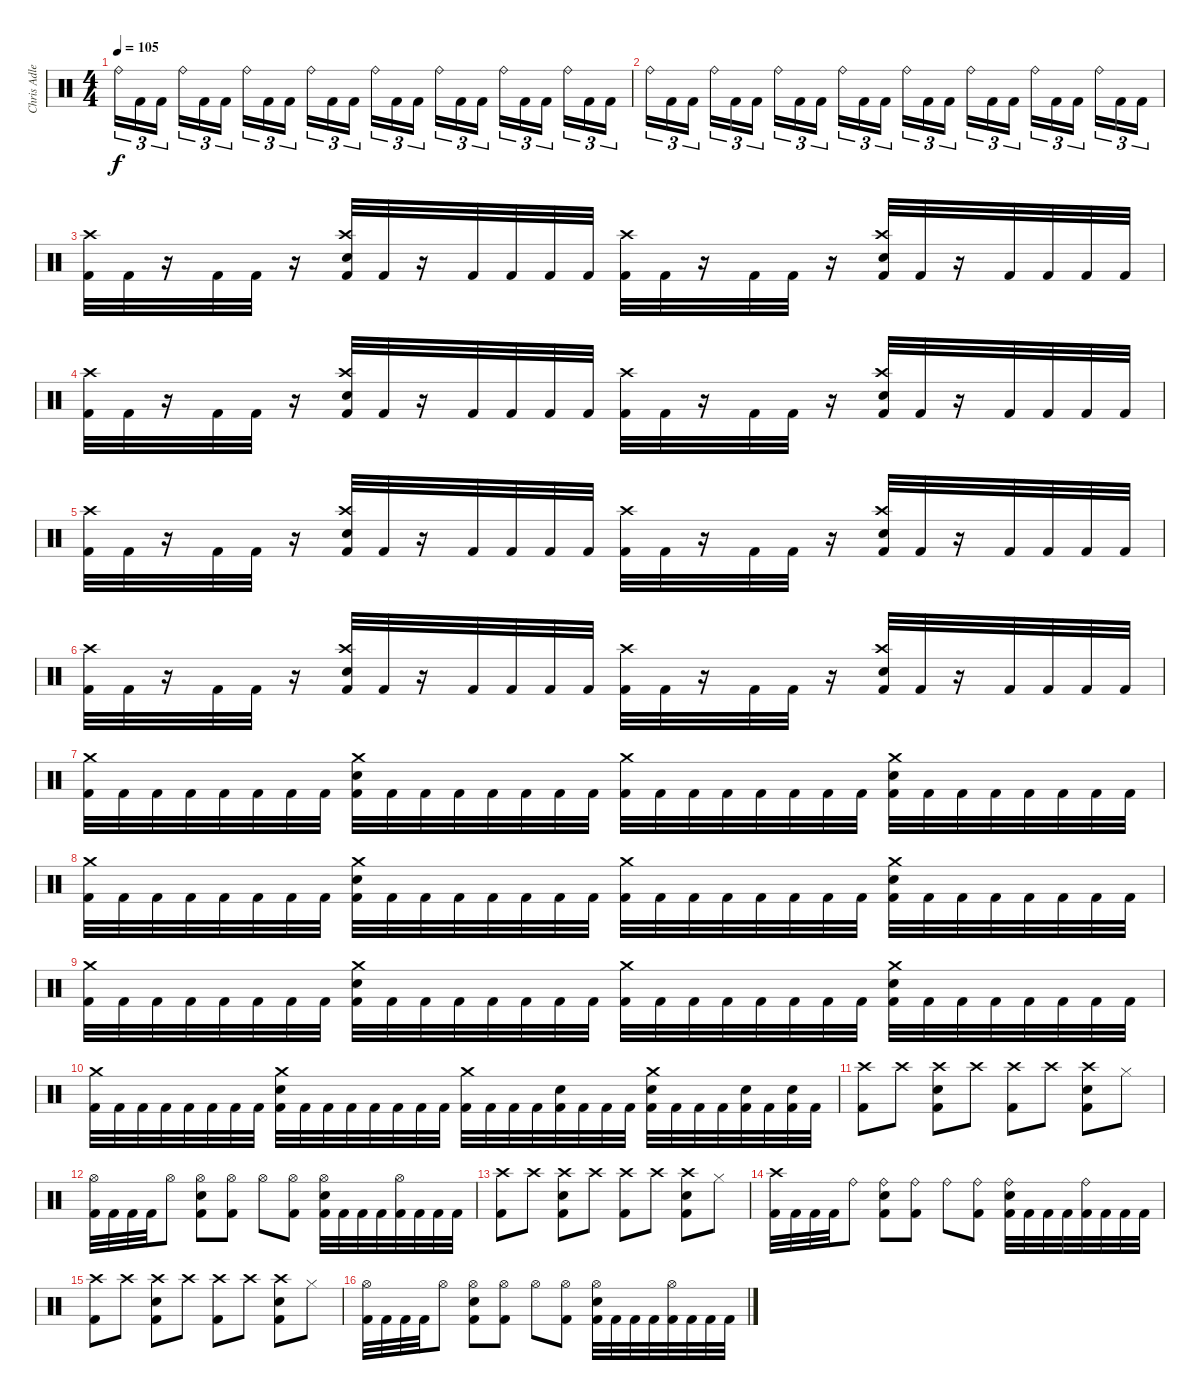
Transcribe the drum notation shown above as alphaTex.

\track ("Chris Adler" "Chris Adle") {instrument percussion}
\staff {score}
\articulation defaults
\ts (4 4)
\tempo 105
\clef neutral
\ks c "Ride (bell)".16{tu (3 2) dy f} "Kick (hit) 2".16{tu (3 2)} "Kick (hit) 2".16{tu (3 2) beam splitsecondary} "Ride (bell)".16{tu (3 2)} "Kick (hit) 2".16{tu (3 2)} "Kick (hit) 2".16{tu (3 2)} "Ride (bell)".16{tu (3 2)} "Kick (hit) 2".16{tu (3 2)} "Kick (hit) 2".16{tu (3 2) beam splitsecondary} "Ride (bell)".16{tu (3 2)} "Kick (hit) 2".16{tu (3 2)} "Kick (hit) 2".16{tu (3 2)} "Ride (bell)".16{tu (3 2)} "Kick (hit) 2".16{tu (3 2)} "Kick (hit) 2".16{tu (3 2) beam splitsecondary} "Ride (bell)".16{tu (3 2)} "Kick (hit) 2".16{tu (3 2)} "Kick (hit) 2".16{tu (3 2)} "Ride (bell)".16{tu (3 2)} "Kick (hit) 2".16{tu (3 2)} "Kick (hit) 2".16{tu (3 2) beam splitsecondary} "Ride (bell)".16{tu (3 2)} "Kick (hit) 2".16{tu (3 2)} "Kick (hit) 2".16{tu (3 2)}
|
"Ride (bell)".16{tu (3 2)} "Kick (hit) 2".16{tu (3 2)} "Kick (hit) 2".16{tu (3 2) beam splitsecondary} "Ride (bell)".16{tu (3 2)} "Kick (hit) 2".16{tu (3 2)} "Kick (hit) 2".16{tu (3 2)} "Ride (bell)".16{tu (3 2)} "Kick (hit) 2".16{tu (3 2)} "Kick (hit) 2".16{tu (3 2) beam splitsecondary} "Ride (bell)".16{tu (3 2)} "Kick (hit) 2".16{tu (3 2)} "Kick (hit) 2".16{tu (3 2)} "Ride (bell)".16{tu (3 2)} "Kick (hit) 2".16{tu (3 2)} "Kick (hit) 2".16{tu (3 2) beam splitsecondary} "Ride (bell)".16{tu (3 2)} "Kick (hit) 2".16{tu (3 2)} "Kick (hit) 2".16{tu (3 2)} "Ride (bell)".16{tu (3 2)} "Kick (hit) 2".16{tu (3 2)} "Kick (hit) 2".16{tu (3 2) beam splitsecondary} "Ride (bell)".16{tu (3 2)} "Kick (hit) 2".16{tu (3 2)} "Kick (hit) 2".16{tu (3 2)} |
("Crash high (hit)" "Kick (hit) 2").32 "Kick (hit) 2".32 r.16 "Kick (hit) 2".32 "Kick (hit) 2".32 r.16 ("Crash high (hit)" "Electric Snare (hit)" "Kick (hit) 2").32 "Kick (hit) 2".32 r.16 "Kick (hit) 2".32 "Kick (hit) 2".32 "Kick (hit) 2".32 "Kick (hit) 2".32 ("Crash high (hit)" "Kick (hit) 2").32 "Kick (hit) 2".32 r.16 "Kick (hit) 2".32 "Kick (hit) 2".32 r.16 ("Crash high (hit)" "Electric Snare (hit)" "Kick (hit) 2").32 "Kick (hit) 2".32 r.16 "Kick (hit) 2".32 "Kick (hit) 2".32 "Kick (hit) 2".32 "Kick (hit) 2".32 |
("Crash high (hit)" "Kick (hit) 2").32 "Kick (hit) 2".32 r.16 "Kick (hit) 2".32 "Kick (hit) 2".32 r.16 ("Crash high (hit)" "Electric Snare (hit)" "Kick (hit) 2").32 "Kick (hit) 2".32 r.16 "Kick (hit) 2".32 "Kick (hit) 2".32 "Kick (hit) 2".32 "Kick (hit) 2".32 ("Crash high (hit)" "Kick (hit) 2").32 "Kick (hit) 2".32 r.16 "Kick (hit) 2".32 "Kick (hit) 2".32 r.16 ("Crash high (hit)" "Electric Snare (hit)" "Kick (hit) 2").32 "Kick (hit) 2".32 r.16 "Kick (hit) 2".32 "Kick (hit) 2".32 "Kick (hit) 2".32 "Kick (hit) 2".32 |
("Crash high (hit)" "Kick (hit) 2").32 "Kick (hit) 2".32 r.16 "Kick (hit) 2".32 "Kick (hit) 2".32 r.16 ("Crash high (hit)" "Electric Snare (hit)" "Kick (hit) 2").32 "Kick (hit) 2".32 r.16 "Kick (hit) 2".32 "Kick (hit) 2".32 "Kick (hit) 2".32 "Kick (hit) 2".32 ("Crash high (hit)" "Kick (hit) 2").32 "Kick (hit) 2".32 r.16 "Kick (hit) 2".32 "Kick (hit) 2".32 r.16 ("Crash high (hit)" "Electric Snare (hit)" "Kick (hit) 2").32 "Kick (hit) 2".32 r.16 "Kick (hit) 2".32 "Kick (hit) 2".32 "Kick (hit) 2".32 "Kick (hit) 2".32 |
("Crash high (hit)" "Kick (hit) 2").32 "Kick (hit) 2".32 r.16 "Kick (hit) 2".32 "Kick (hit) 2".32 r.16 ("Crash high (hit)" "Electric Snare (hit)" "Kick (hit) 2").32 "Kick (hit) 2".32 r.16 "Kick (hit) 2".32 "Kick (hit) 2".32 "Kick (hit) 2".32 "Kick (hit) 2".32 ("Crash high (hit)" "Kick (hit) 2").32 "Kick (hit) 2".32 r.16 "Kick (hit) 2".32 "Kick (hit) 2".32 r.16 ("Crash high (hit)" "Electric Snare (hit)" "Kick (hit) 2").32 "Kick (hit) 2".32 r.16 "Kick (hit) 2".32 "Kick (hit) 2".32 "Kick (hit) 2".32 "Kick (hit) 2".32 |
("Crash medium (hit)" "Kick (hit) 2").32 "Kick (hit) 2".32 "Kick (hit) 2".32 "Kick (hit) 2".32 "Kick (hit) 2".32 "Kick (hit) 2".32 "Kick (hit) 2".32 "Kick (hit) 2".32 ("Crash medium (hit)" "Electric Snare (hit)" "Kick (hit) 2").32 "Kick (hit) 2".32 "Kick (hit) 2".32 "Kick (hit) 2".32 "Kick (hit) 2".32 "Kick (hit) 2".32 "Kick (hit) 2".32 "Kick (hit) 2".32 ("Crash medium (hit)" "Kick (hit) 2").32 "Kick (hit) 2".32 "Kick (hit) 2".32 "Kick (hit) 2".32 "Kick (hit) 2".32 "Kick (hit) 2".32 "Kick (hit) 2".32 "Kick (hit) 2".32 ("Crash medium (hit)" "Electric Snare (hit)" "Kick (hit) 2").32 "Kick (hit) 2".32 "Kick (hit) 2".32 "Kick (hit) 2".32 "Kick (hit) 2".32 "Kick (hit) 2".32 "Kick (hit) 2".32 "Kick (hit) 2".32 |
("Crash medium (hit)" "Kick (hit) 2").32 "Kick (hit) 2".32 "Kick (hit) 2".32 "Kick (hit) 2".32 "Kick (hit) 2".32 "Kick (hit) 2".32 "Kick (hit) 2".32 "Kick (hit) 2".32 ("Crash medium (hit)" "Electric Snare (hit)" "Kick (hit) 2").32 "Kick (hit) 2".32 "Kick (hit) 2".32 "Kick (hit) 2".32 "Kick (hit) 2".32 "Kick (hit) 2".32 "Kick (hit) 2".32 "Kick (hit) 2".32 ("Crash medium (hit)" "Kick (hit) 2").32 "Kick (hit) 2".32 "Kick (hit) 2".32 "Kick (hit) 2".32 "Kick (hit) 2".32 "Kick (hit) 2".32 "Kick (hit) 2".32 "Kick (hit) 2".32 ("Crash medium (hit)" "Electric Snare (hit)" "Kick (hit) 2").32 "Kick (hit) 2".32 "Kick (hit) 2".32 "Kick (hit) 2".32 "Kick (hit) 2".32 "Kick (hit) 2".32 "Kick (hit) 2".32 "Kick (hit) 2".32 |
("Crash medium (hit)" "Kick (hit) 2").32 "Kick (hit) 2".32 "Kick (hit) 2".32 "Kick (hit) 2".32 "Kick (hit) 2".32 "Kick (hit) 2".32 "Kick (hit) 2".32 "Kick (hit) 2".32 ("Crash medium (hit)" "Electric Snare (hit)" "Kick (hit) 2").32 "Kick (hit) 2".32 "Kick (hit) 2".32 "Kick (hit) 2".32 "Kick (hit) 2".32 "Kick (hit) 2".32 "Kick (hit) 2".32 "Kick (hit) 2".32 ("Crash medium (hit)" "Kick (hit) 2").32 "Kick (hit) 2".32 "Kick (hit) 2".32 "Kick (hit) 2".32 "Kick (hit) 2".32 "Kick (hit) 2".32 "Kick (hit) 2".32 "Kick (hit) 2".32 ("Crash medium (hit)" "Electric Snare (hit)" "Kick (hit) 2").32 "Kick (hit) 2".32 "Kick (hit) 2".32 "Kick (hit) 2".32 "Kick (hit) 2".32 "Kick (hit) 2".32 "Kick (hit) 2".32 "Kick (hit) 2".32 |
("Crash medium (hit)" "Kick (hit) 2").32 "Kick (hit) 2".32 "Kick (hit) 2".32 "Kick (hit) 2".32 "Kick (hit) 2".32 "Kick (hit) 2".32 "Kick (hit) 2".32 "Kick (hit) 2".32 ("Crash medium (hit)" "Electric Snare (hit)" "Kick (hit) 2").32 "Kick (hit) 2".32 "Kick (hit) 2".32 "Kick (hit) 2".32 "Kick (hit) 2".32 "Kick (hit) 2".32 "Kick (hit) 2".32 "Kick (hit) 2".32 ("Crash medium (hit)" "Kick (hit) 2").32 "Kick (hit) 2".32 "Kick (hit) 2".32 "Kick (hit) 2".32 ("Electric Snare (hit)" "Kick (hit) 2").32 "Kick (hit) 2".32 "Kick (hit) 2".32 "Kick (hit) 2".32 ("Crash medium (hit)" "Electric Snare (hit)" "Kick (hit) 2").32 "Kick (hit) 2".32 "Kick (hit) 2".32 "Kick (hit) 2".32 ("Electric Snare (hit)" "Kick (hit) 2").32 "Kick (hit) 2".32 ("Electric Snare (hit)" "Kick (hit) 2").32 "Kick (hit) 2".32 |
("Crash high (hit)" "Kick (hit) 2").8 "Crash high (hit)".8 ("Crash high (hit)" "Electric Snare (hit)" "Kick (hit) 2").8 "Crash high (hit)".8 ("Crash high (hit)" "Kick (hit) 2").8 "Crash high (hit)".8 ("Crash high (hit)" "Electric Snare (hit)" "Kick (hit) 2").8 "Hi-Hat (closed)".8 |
("Hi-Hat (open)" "Kick (hit) 2").32 "Kick (hit) 2".32 "Kick (hit) 2".32 "Kick (hit) 2".32 "Hi-Hat (open)".8 ("Hi-Hat (open)" "Electric Snare (hit)" "Kick (hit) 2").8 ("Hi-Hat (open)" "Kick (hit) 2").8 "Hi-Hat (open)".8 ("Hi-Hat (open)" "Kick (hit) 2").8 ("Hi-Hat (open)" "Electric Snare (hit)" "Kick (hit) 2").32 "Kick (hit) 2".32 "Kick (hit) 2".32 "Kick (hit) 2".32 ("Hi-Hat (open)" "Kick (hit) 2").32 "Kick (hit) 2".32 "Kick (hit) 2".32 "Kick (hit) 2".32 |
("Crash high (hit)" "Kick (hit) 2").8 "Crash high (hit)".8 ("Crash high (hit)" "Electric Snare (hit)" "Kick (hit) 2").8 "Crash high (hit)".8 ("Crash high (hit)" "Kick (hit) 2").8 "Crash high (hit)".8 ("Crash high (hit)" "Electric Snare (hit)" "Kick (hit) 2").8 "Hi-Hat (closed)".8 |
("Crash high (hit)" "Kick (hit) 2").32 "Kick (hit) 2".32 "Kick (hit) 2".32 "Kick (hit) 2".32 "Ride (bell)".8 ("Ride (bell)" "Electric Snare (hit)" "Kick (hit) 2").8 ("Ride (bell)" "Kick (hit) 2").8 "Ride (bell)".8 ("Ride (bell)" "Kick (hit) 2").8 ("Ride (bell)" "Electric Snare (hit)" "Kick (hit) 2").32 "Kick (hit) 2".32 "Kick (hit) 2".32 "Kick (hit) 2".32 ("Ride (bell)" "Kick (hit) 2").32 "Kick (hit) 2".32 "Kick (hit) 2".32 "Kick (hit) 2".32 |
("Crash high (hit)" "Kick (hit) 2").8 "Crash high (hit)".8 ("Crash high (hit)" "Electric Snare (hit)" "Kick (hit) 2").8 "Crash high (hit)".8 ("Crash high (hit)" "Kick (hit) 2").8 "Crash high (hit)".8 ("Crash high (hit)" "Electric Snare (hit)" "Kick (hit) 2").8 "Hi-Hat (closed)".8 |
("Hi-Hat (open)" "Kick (hit) 2").32 "Kick (hit) 2".32 "Kick (hit) 2".32 "Kick (hit) 2".32 "Hi-Hat (open)".8 ("Hi-Hat (open)" "Electric Snare (hit)" "Kick (hit) 2").8 ("Hi-Hat (open)" "Kick (hit) 2").8 "Hi-Hat (open)".8 ("Hi-Hat (open)" "Kick (hit) 2").8 ("Hi-Hat (open)" "Electric Snare (hit)" "Kick (hit) 2").32 "Kick (hit) 2".32 "Kick (hit) 2".32 "Kick (hit) 2".32 ("Hi-Hat (open)" "Kick (hit) 2").32 "Kick (hit) 2".32 "Kick (hit) 2".32 "Kick (hit) 2".32
